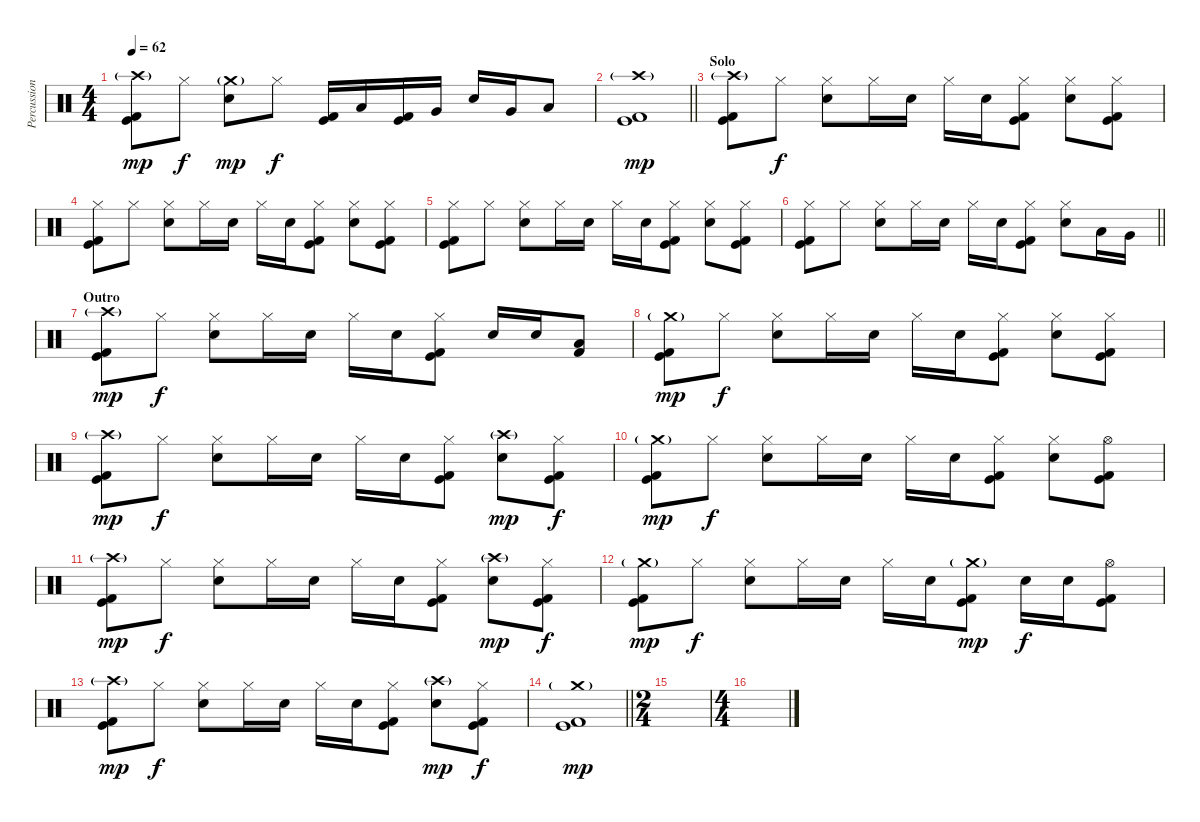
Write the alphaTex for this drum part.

\track ("Percussion" "Percussion") {instrument percussion}
\staff {score}
\articulation defaults
\ts (4 4)
\tempo 62
\clef neutral
\ks c
("Crash high (hit)"{g} "Kick (hit)" "Kick (hit) 2").8{dy mp} "Hi-Hat (closed)".8{dy f} ("Crash medium (hit)"{g} "Electric Snare (hit)").8{dy mp} "Hi-Hat (closed)".8{dy f} ("Kick (hit)" "Kick (hit) 2").16 "Low Tom (hit)".16 ("Kick (hit)" "Kick (hit) 2").16 "Very Low Tom (hit)".16 "Electric Snare (hit)".16 "Very Low Tom (hit)".16 "Low Floor Tom (hit)".8 |
\barLineRight lightlight
("Crash high (hit)"{g} "Kick (hit)" "Kick (hit) 2").1{dy mp} |
\section ("" "Solo")
("Crash high (hit)"{g} "Kick (hit)" "Kick (hit) 2").8 "Hi-Hat (closed)".8{dy f} ("Hi-Hat (closed)" "Electric Snare (hit)").8 "Hi-Hat (closed)".16 "Snare (hit) 2".16 "Hi-Hat (closed)".16 "Snare (hit) 2".16 ("Hi-Hat (closed)" "Kick (hit)" "Kick (hit) 2").8 ("Hi-Hat (closed)" "Electric Snare (hit)").8 ("Hi-Hat (closed)" "Kick (hit)" "Kick (hit) 2").8 |
("Hi-Hat (closed)" "Kick (hit)" "Kick (hit) 2").8 "Hi-Hat (closed)".8 ("Hi-Hat (closed)" "Electric Snare (hit)").8 "Hi-Hat (closed)".16 "Snare (hit) 2".16 "Hi-Hat (closed)".16 "Snare (hit) 2".16 ("Hi-Hat (closed)" "Kick (hit)" "Kick (hit) 2").8 ("Hi-Hat (closed)" "Electric Snare (hit)").8 ("Hi-Hat (closed)" "Kick (hit)" "Kick (hit) 2").8 |
("Hi-Hat (closed)" "Kick (hit)" "Kick (hit) 2").8 "Hi-Hat (closed)".8 ("Hi-Hat (closed)" "Electric Snare (hit)").8 "Hi-Hat (closed)".16 "Snare (hit) 2".16 "Hi-Hat (closed)".16 "Snare (hit) 2".16 ("Hi-Hat (closed)" "Kick (hit)" "Kick (hit) 2").8 ("Hi-Hat (closed)" "Electric Snare (hit)").8 ("Hi-Hat (closed)" "Kick (hit)" "Kick (hit) 2").8 |
\barLineRight lightlight
("Hi-Hat (closed)" "Kick (hit)" "Kick (hit) 2").8 "Hi-Hat (closed)".8 ("Hi-Hat (closed)" "Electric Snare (hit)").8 "Hi-Hat (closed)".16 "Snare (hit) 2".16 "Hi-Hat (closed)".16 "Snare (hit) 2".16 ("Hi-Hat (closed)" "Kick (hit)" "Kick (hit) 2").8 ("Hi-Hat (closed)" "Electric Snare (hit)").8 "Low Tom (hit)".16 "Very Low Tom (hit)".16 |
\section ("" "Outro")
("Crash high (hit)"{g} "Kick (hit)" "Kick (hit) 2").8{dy mp} "Hi-Hat (closed)".8{dy f} ("Hi-Hat (closed)" "Electric Snare (hit)").8 "Hi-Hat (closed)".16 "Snare (hit) 2".16 "Hi-Hat (closed)".16 "Snare (hit) 2".16 ("Hi-Hat (closed)" "Kick (hit)" "Kick (hit) 2").8 "Electric Snare (hit)".16 "Electric Snare (hit)".16 ("Kick (hit) 2" "Low Tom (hit)").8 |
("Crash medium (hit)"{g} "Kick (hit)" "Kick (hit) 2").8{dy mp} "Hi-Hat (closed)".8{dy f} ("Hi-Hat (closed)" "Electric Snare (hit)").8 "Hi-Hat (closed)".16 "Snare (hit) 2".16 "Hi-Hat (closed)".16 "Snare (hit) 2".16 ("Hi-Hat (closed)" "Kick (hit)" "Kick (hit) 2").8 ("Hi-Hat (closed)" "Electric Snare (hit)").8 ("Hi-Hat (closed)" "Kick (hit)" "Kick (hit) 2").8 |
("Crash high (hit)"{g} "Kick (hit)" "Kick (hit) 2").8{dy mp} "Hi-Hat (closed)".8{dy f} ("Hi-Hat (closed)" "Electric Snare (hit)").8 "Hi-Hat (closed)".16 "Snare (hit) 2".16 "Hi-Hat (closed)".16 "Snare (hit) 2".16 ("Hi-Hat (closed)" "Kick (hit)" "Kick (hit) 2").8 ("Crash high (hit)"{g} "Electric Snare (hit)").8{dy mp} ("Hi-Hat (closed)" "Kick (hit)" "Kick (hit) 2").8{dy f} |
("Crash medium (hit)"{g} "Kick (hit)" "Kick (hit) 2").8{dy mp} "Hi-Hat (closed)".8{dy f} ("Hi-Hat (closed)" "Electric Snare (hit)").8 "Hi-Hat (closed)".16 "Snare (hit) 2".16 "Hi-Hat (closed)".16 "Snare (hit) 2".16 ("Hi-Hat (closed)" "Kick (hit)" "Kick (hit) 2").8 ("Hi-Hat (closed)" "Electric Snare (hit)").8 ("Hi-Hat (open)" "Kick (hit)" "Kick (hit) 2").8 |
("Crash high (hit)"{g} "Kick (hit)" "Kick (hit) 2").8{dy mp} "Hi-Hat (closed)".8{dy f} ("Hi-Hat (closed)" "Electric Snare (hit)").8 "Hi-Hat (closed)".16 "Snare (hit) 2".16 "Hi-Hat (closed)".16 "Snare (hit) 2".16 ("Hi-Hat (closed)" "Kick (hit)" "Kick (hit) 2").8 ("Crash high (hit)"{g} "Electric Snare (hit)").8{dy mp} ("Hi-Hat (closed)" "Kick (hit)" "Kick (hit) 2").8{dy f} |
("Crash medium (hit)"{g} "Kick (hit)" "Kick (hit) 2").8{dy mp} "Hi-Hat (closed)".8{dy f} ("Hi-Hat (closed)" "Electric Snare (hit)").8 "Hi-Hat (closed)".16 "Snare (hit) 2".16 "Hi-Hat (closed)".16 "Snare (hit) 2".16 ("Crash medium (hit)"{g} "Kick (hit)" "Kick (hit) 2").8{dy mp} "Electric Snare (hit)".16{dy f} "Electric Snare (hit)".16 ("Hi-Hat (open)" "Kick (hit)" "Kick (hit) 2").8 |
("Crash high (hit)"{g} "Kick (hit)" "Kick (hit) 2").8{dy mp} "Hi-Hat (closed)".8{dy f} ("Hi-Hat (closed)" "Electric Snare (hit)").8 "Hi-Hat (closed)".16 "Snare (hit) 2".16 "Hi-Hat (closed)".16 "Snare (hit) 2".16 ("Hi-Hat (closed)" "Kick (hit)" "Kick (hit) 2").8 ("Crash high (hit)"{g} "Electric Snare (hit)").8{dy mp} ("Hi-Hat (closed)" "Kick (hit)" "Kick (hit) 2").8{dy f} |
\barLineRight lightlight
("Crash medium (hit)"{g} "Kick (hit)" "Kick (hit) 2").1{dy mp} |
\ts (2 4)
|
\ts (4 4)
